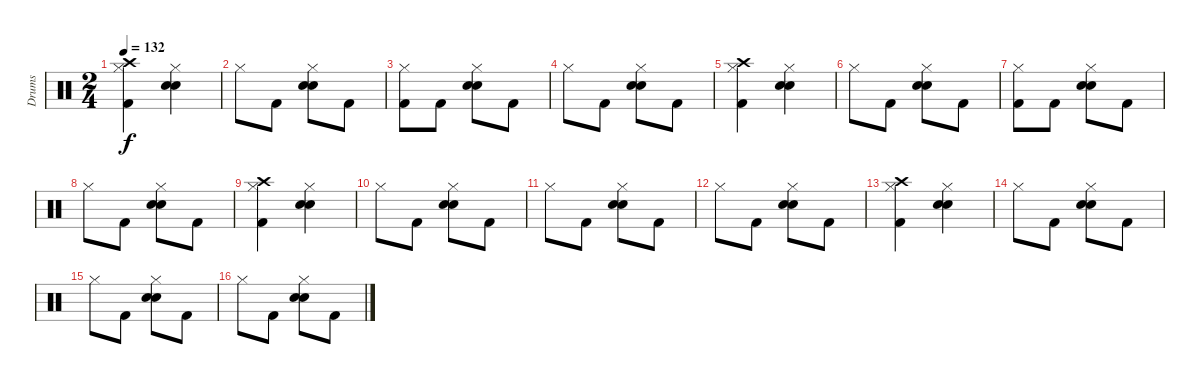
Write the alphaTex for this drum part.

\track ("Drums" "Drums") {instrument percussion}
\staff {score}
\articulation defaults
\ts (2 4)
\tempo 132
\clef neutral
\ks c
("Kick (hit) 2" "Crash high (hit)" "Hi-Hat (closed)").4{dy f} ("Electric Snare (hit)" "Electric Snare (hit)" "Hi-Hat (closed)").4 |
"Hi-Hat (closed)".8 "Kick (hit) 2".8 ("Electric Snare (hit)" "Electric Snare (hit)" "Hi-Hat (closed)").8 "Kick (hit) 2".8 |
("Kick (hit) 2" "Hi-Hat (closed)").8 "Kick (hit) 2".8 ("Electric Snare (hit)" "Electric Snare (hit)" "Hi-Hat (closed)").8 "Kick (hit) 2".8 |
"Hi-Hat (closed)".8 "Kick (hit) 2".8 ("Electric Snare (hit)" "Electric Snare (hit)" "Hi-Hat (closed)").8 "Kick (hit) 2".8 |
("Kick (hit) 2" "Crash high (hit)" "Hi-Hat (closed)").4 ("Electric Snare (hit)" "Electric Snare (hit)" "Hi-Hat (closed)").4 |
"Hi-Hat (closed)".8 "Kick (hit) 2".8 ("Electric Snare (hit)" "Electric Snare (hit)" "Hi-Hat (closed)").8 "Kick (hit) 2".8 |
("Kick (hit) 2" "Hi-Hat (closed)").8 "Kick (hit) 2".8 ("Electric Snare (hit)" "Electric Snare (hit)" "Hi-Hat (closed)").8 "Kick (hit) 2".8 |
"Hi-Hat (closed)".8 "Kick (hit) 2".8 ("Electric Snare (hit)" "Electric Snare (hit)" "Hi-Hat (closed)").8 "Kick (hit) 2".8 |
("Kick (hit) 2" "Crash high (hit)" "Hi-Hat (closed)").4 ("Electric Snare (hit)" "Electric Snare (hit)" "Hi-Hat (closed)").4 |
"Hi-Hat (closed)".8 "Kick (hit) 2".8 ("Electric Snare (hit)" "Electric Snare (hit)" "Hi-Hat (closed)").8 "Kick (hit) 2".8 |
"Hi-Hat (closed)".8 "Kick (hit) 2".8 ("Electric Snare (hit)" "Electric Snare (hit)" "Hi-Hat (closed)").8 "Kick (hit) 2".8 |
"Hi-Hat (closed)".8 "Kick (hit) 2".8 ("Electric Snare (hit)" "Electric Snare (hit)" "Hi-Hat (closed)").8 "Kick (hit) 2".8 |
("Kick (hit) 2" "Crash high (hit)" "Hi-Hat (closed)").4 ("Electric Snare (hit)" "Electric Snare (hit)" "Hi-Hat (closed)").4 |
"Hi-Hat (closed)".8 "Kick (hit) 2".8 ("Electric Snare (hit)" "Electric Snare (hit)" "Hi-Hat (closed)").8 "Kick (hit) 2".8 |
"Hi-Hat (closed)".8 "Kick (hit) 2".8 ("Electric Snare (hit)" "Electric Snare (hit)" "Hi-Hat (closed)").8 "Kick (hit) 2".8 |
"Hi-Hat (closed)".8 "Kick (hit) 2".8 ("Electric Snare (hit)" "Electric Snare (hit)" "Hi-Hat (closed)").8 "Kick (hit) 2".8
